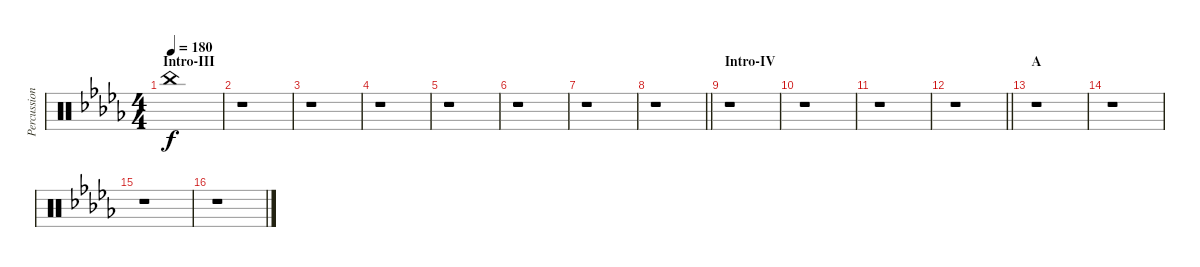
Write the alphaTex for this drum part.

\track ("Percussion" "Percussion") {instrument percussion}
\staff {score}
\articulation defaults
\ts (4 4)
\section ("" "Intro-III")
\tempo 180
\clef neutral
\ks db "China (hit)".1{dy f}
|
r.1 |
r.1 |
r.1 |
r.1 |
r.1 |
r.1 |
\barLineRight lightlight
r.1 |
\section ("" "Intro-IV")
r.1 |
r.1 |
r.1 |
\barLineRight lightlight
r.1 |
\section ("" "A")
r.1 |
r.1 |
r.1 |
r.1
